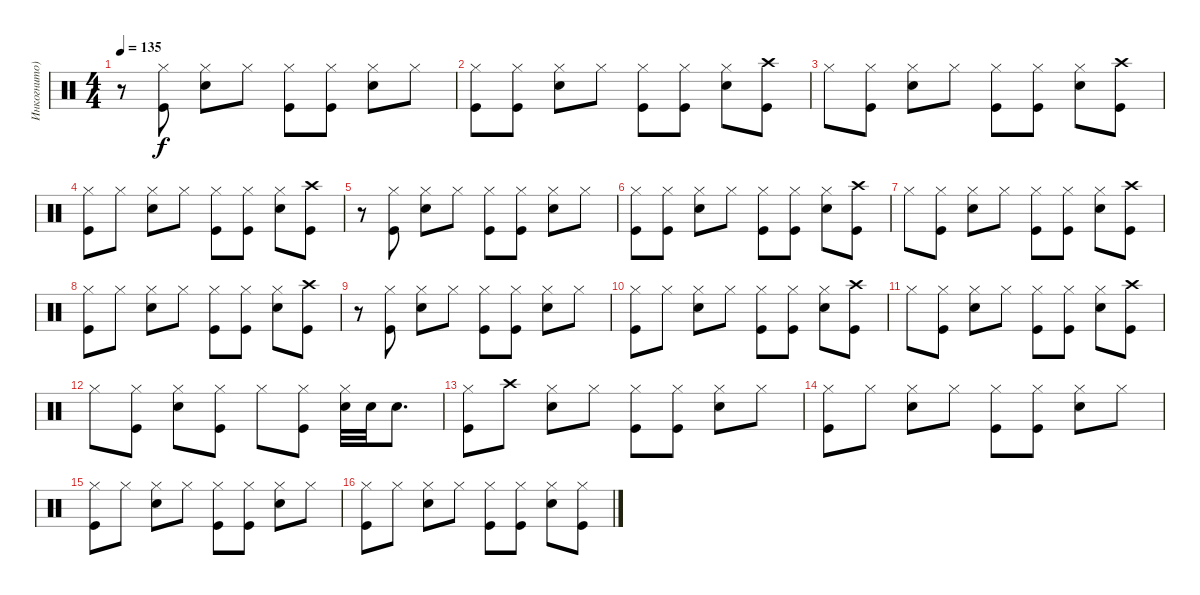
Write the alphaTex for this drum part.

\track ("Инкогнито)" "Инкогнито)") {instrument percussion}
\staff {score}
\articulation defaults
\ts (4 4)
\tempo 135
\clef neutral
\ks c
r.8{dy f} ("Hi-Hat (closed)" "Kick (hit)").8 ("Hi-Hat (closed)" "Snare (hit) 2").8 "Hi-Hat (closed)".8 ("Hi-Hat (closed)" "Kick (hit)").8 ("Hi-Hat (closed)" "Kick (hit)").8 ("Hi-Hat (closed)" "Snare (hit) 2").8 "Hi-Hat (closed)".8 |
("Hi-Hat (closed)" "Kick (hit)").8 ("Hi-Hat (closed)" "Kick (hit)").8 ("Hi-Hat (closed)" "Snare (hit) 2").8 "Hi-Hat (closed)".8 ("Hi-Hat (closed)" "Kick (hit)").8 ("Hi-Hat (closed)" "Kick (hit)").8 ("Hi-Hat (closed)" "Snare (hit) 2").8 ("Crash high (hit)" "Kick (hit)").8 |
"Hi-Hat (closed)".8 ("Hi-Hat (closed)" "Kick (hit)").8 ("Hi-Hat (closed)" "Snare (hit) 2").8 "Hi-Hat (closed)".8 ("Hi-Hat (closed)" "Kick (hit)").8 ("Hi-Hat (closed)" "Kick (hit)").8 ("Hi-Hat (closed)" "Snare (hit) 2").8 ("Crash high (hit)" "Kick (hit)").8 |
("Hi-Hat (closed)" "Kick (hit)").8 "Hi-Hat (closed)".8 ("Hi-Hat (closed)" "Snare (hit) 2").8 "Hi-Hat (closed)".8 ("Hi-Hat (closed)" "Kick (hit)").8 ("Hi-Hat (closed)" "Kick (hit)").8 ("Hi-Hat (closed)" "Snare (hit) 2").8 ("Crash high (hit)" "Kick (hit)").8 |
r.8 ("Hi-Hat (closed)" "Kick (hit)").8 ("Hi-Hat (closed)" "Snare (hit) 2").8 "Hi-Hat (closed)".8 ("Hi-Hat (closed)" "Kick (hit)").8 ("Hi-Hat (closed)" "Kick (hit)").8 ("Hi-Hat (closed)" "Snare (hit) 2").8 "Hi-Hat (closed)".8 |
("Hi-Hat (closed)" "Kick (hit)").8 ("Hi-Hat (closed)" "Kick (hit)").8 ("Hi-Hat (closed)" "Snare (hit) 2").8 "Hi-Hat (closed)".8 ("Hi-Hat (closed)" "Kick (hit)").8 ("Hi-Hat (closed)" "Kick (hit)").8 ("Hi-Hat (closed)" "Snare (hit) 2").8 ("Crash high (hit)" "Kick (hit)").8 |
"Hi-Hat (closed)".8 ("Hi-Hat (closed)" "Kick (hit)").8 ("Hi-Hat (closed)" "Snare (hit) 2").8 "Hi-Hat (closed)".8 ("Hi-Hat (closed)" "Kick (hit)").8 ("Hi-Hat (closed)" "Kick (hit)").8 ("Hi-Hat (closed)" "Snare (hit) 2").8 ("Crash high (hit)" "Kick (hit)").8 |
("Hi-Hat (closed)" "Kick (hit)").8 "Hi-Hat (closed)".8 ("Hi-Hat (closed)" "Snare (hit) 2").8 "Hi-Hat (closed)".8 ("Hi-Hat (closed)" "Kick (hit)").8 ("Hi-Hat (closed)" "Kick (hit)").8 ("Hi-Hat (closed)" "Snare (hit) 2").8 ("Crash high (hit)" "Kick (hit)").8 |
r.8 ("Hi-Hat (closed)" "Kick (hit)").8 ("Hi-Hat (closed)" "Snare (hit) 2").8 "Hi-Hat (closed)".8 ("Hi-Hat (closed)" "Kick (hit)").8 ("Hi-Hat (closed)" "Kick (hit)").8 ("Hi-Hat (closed)" "Snare (hit) 2").8 "Hi-Hat (closed)".8 |
("Hi-Hat (closed)" "Kick (hit)").8 "Hi-Hat (closed)".8 ("Hi-Hat (closed)" "Snare (hit) 2").8 "Hi-Hat (closed)".8 ("Hi-Hat (closed)" "Kick (hit)").8 ("Hi-Hat (closed)" "Kick (hit)").8 ("Hi-Hat (closed)" "Snare (hit) 2").8 ("Crash high (hit)" "Kick (hit)").8 |
"Hi-Hat (closed)".8 ("Hi-Hat (closed)" "Kick (hit)").8 ("Hi-Hat (closed)" "Snare (hit) 2").8 "Hi-Hat (closed)".8 ("Hi-Hat (closed)" "Kick (hit)").8 ("Hi-Hat (closed)" "Kick (hit)").8 ("Hi-Hat (closed)" "Snare (hit) 2").8 ("Crash high (hit)" "Kick (hit)").8 |
"Hi-Hat (closed)".8 ("Hi-Hat (closed)" "Kick (hit)").8 ("Hi-Hat (closed)" "Snare (hit) 2").8 ("Hi-Hat (closed)" "Kick (hit)").8 "Hi-Hat (closed)".8 ("Hi-Hat (closed)" "Kick (hit)").8 ("Hi-Hat (closed)" "Snare (hit) 2").32 "Snare (hit) 2".32 "Snare (hit) 2".8{d} |
("Hi-Hat (closed)" "Kick (hit)").8 "Crash high (hit)".8 ("Hi-Hat (closed)" "Snare (hit) 2").8 "Hi-Hat (closed)".8 ("Hi-Hat (closed)" "Kick (hit)").8 ("Hi-Hat (closed)" "Kick (hit)").8 ("Hi-Hat (closed)" "Snare (hit) 2").8 "Hi-Hat (closed)".8 |
("Hi-Hat (closed)" "Kick (hit)").8 "Hi-Hat (closed)".8 ("Hi-Hat (closed)" "Snare (hit) 2").8 "Hi-Hat (closed)".8 ("Hi-Hat (closed)" "Kick (hit)").8 ("Hi-Hat (closed)" "Kick (hit)").8 ("Hi-Hat (closed)" "Snare (hit) 2").8 "Hi-Hat (closed)".8 |
("Hi-Hat (closed)" "Kick (hit)").8 "Hi-Hat (closed)".8 ("Hi-Hat (closed)" "Snare (hit) 2").8 "Hi-Hat (closed)".8 ("Hi-Hat (closed)" "Kick (hit)").8 ("Hi-Hat (closed)" "Kick (hit)").8 ("Hi-Hat (closed)" "Snare (hit) 2").8 "Hi-Hat (closed)".8 |
("Hi-Hat (closed)" "Kick (hit)").8 "Hi-Hat (closed)".8 ("Hi-Hat (closed)" "Snare (hit) 2").8 "Hi-Hat (closed)".8 ("Hi-Hat (closed)" "Kick (hit)").8 ("Hi-Hat (closed)" "Kick (hit)").8 ("Hi-Hat (closed)" "Snare (hit) 2").8 ("Hi-Hat (closed)" "Kick (hit)").8
